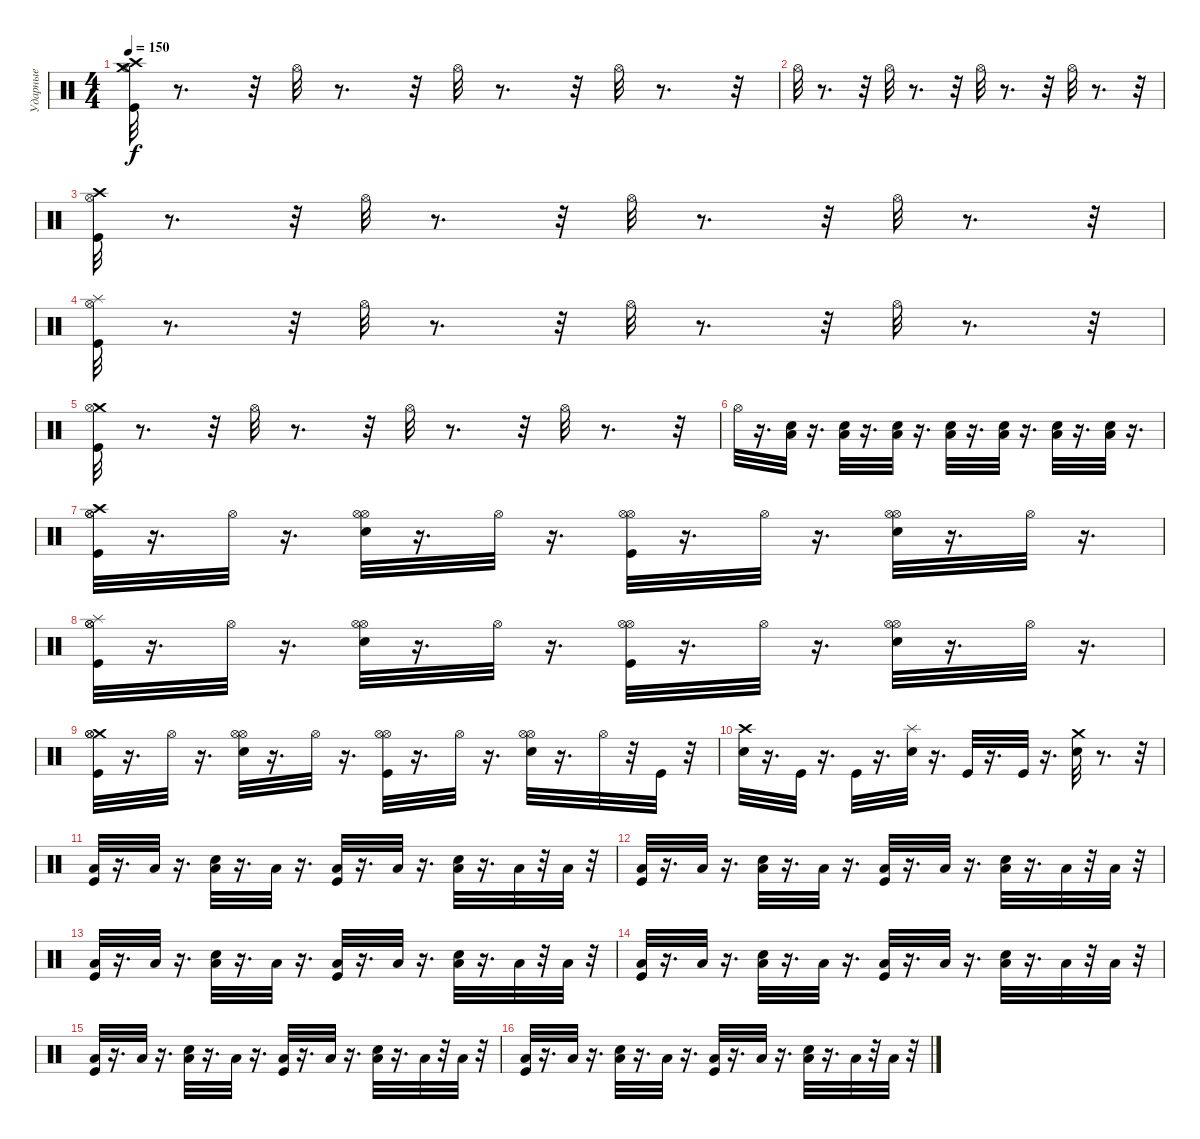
\track ("Ударные" "Ударные") {instrument percussion}
\staff {score}
\articulation defaults
\ts (4 4)
\tempo 150
\clef neutral
\ks c
("Hi-Hat (open)" "Crash medium (hit)" "Crash high (hit)" "Kick (hit)").32{dy f} r.8{d} r.32 "Hi-Hat (open)".32 r.8{d} r.32 "Hi-Hat (open)".32 r.8{d} r.32 "Hi-Hat (open)".32 r.8{d} r.32 |
"Hi-Hat (open)".32 r.8{d} r.32 "Hi-Hat (open)".32 r.8{d} r.32 "Hi-Hat (open)".32 r.8{d} r.32 "Hi-Hat (open)".32 r.8{d} r.32 |
("Kick (hit)" "Crash high (hit)" "Hi-Hat (open)").32 r.8{d} r.32 "Hi-Hat (open)".32 r.8{d} r.32 "Hi-Hat (open)".32 r.8{d} r.32 "Hi-Hat (open)".32 r.8{d} r.32 |
("Kick (hit)" "Splash (hit)" "Hi-Hat (open)").32 r.8{d} r.32 "Hi-Hat (open)".32 r.8{d} r.32 "Hi-Hat (open)".32 r.8{d} r.32 "Hi-Hat (open)".32 r.8{d} r.32 |
("Kick (hit)" "Crash medium (hit)" "Hi-Hat (open)").32 r.8{d} r.32 "Hi-Hat (open)".32 r.8{d} r.32 "Hi-Hat (open)".32 r.8{d} r.32 "Hi-Hat (open)".32 r.8{d} r.32 |
"Hi-Hat (open)".32 r.16{d} ("Snare (hit) 2" "Low Floor Tom (hit)").32 r.16{d} ("Snare (hit) 2" "Low Floor Tom (hit)").32 r.16{d} ("Low Floor Tom (hit)" "Snare (hit) 2").32 r.16{d} ("Snare (hit) 2" "Low Floor Tom (hit)").32 r.16{d} ("Snare (hit) 2" "Low Floor Tom (hit)").32 r.16{d} ("Low Floor Tom (hit)" "Snare (hit) 2").32 r.16{d} ("Snare (hit) 2" "Low Floor Tom (hit)").32 r.16{d} |
("Kick (hit)" "Crash high (hit)" "Hi-Hat (open)" "Hi-Hat (open)").32 r.16{d} "Hi-Hat (open)".32 r.16{d} ("Snare (hit) 2" "Hi-Hat (open)" "Hi-Hat (open)").32 r.16{d} "Hi-Hat (open)".32 r.16{d} ("Kick (hit)" "Hi-Hat (open)" "Hi-Hat (open)").32 r.16{d} "Hi-Hat (open)".32 r.16{d} ("Snare (hit) 2" "Hi-Hat (open)" "Hi-Hat (open)").32 r.16{d} "Hi-Hat (open)".32 r.16{d} |
("Kick (hit)" "Splash (hit)" "Hi-Hat (open)" "Hi-Hat (open)").32 r.16{d} "Hi-Hat (open)".32 r.16{d} ("Snare (hit) 2" "Hi-Hat (open)" "Hi-Hat (open)").32 r.16{d} "Hi-Hat (open)".32 r.16{d} ("Kick (hit)" "Hi-Hat (open)" "Hi-Hat (open)").32 r.16{d} "Hi-Hat (open)".32 r.16{d} ("Snare (hit) 2" "Hi-Hat (open)" "Hi-Hat (open)").32 r.16{d} "Hi-Hat (open)".32 r.16{d} |
("Kick (hit)" "Crash medium (hit)" "Hi-Hat (open)" "Hi-Hat (open)").32 r.16{d} "Hi-Hat (open)".32 r.16{d} ("Snare (hit) 2" "Hi-Hat (open)" "Hi-Hat (open)").32 r.16{d} "Hi-Hat (open)".32 r.16{d} ("Kick (hit)" "Hi-Hat (open)" "Hi-Hat (open)").32 r.16{d} "Hi-Hat (open)".32 r.16{d} ("Snare (hit) 2" "Hi-Hat (open)" "Hi-Hat (open)").32 r.16{d} "Hi-Hat (open)".32 r.32 "Kick (hit)".32 r.32 |
("Crash high (hit)" "Snare (hit) 2").32 r.16{d} "Kick (hit)".32 r.16{d} "Kick (hit)".32 r.16{d} ("Splash (hit)" "Snare (hit) 2").32 r.16{d} "Kick (hit)".32 r.16{d} "Kick (hit)".32 r.16{d} ("Crash medium (hit)" "Snare (hit) 2").32 r.8{d} r.32 |
("Kick (hit)" "Low Floor Tom (hit)").32 r.16{d} "Low Floor Tom (hit)".32 r.16{d} ("Low Floor Tom (hit)" "Snare (hit) 2").32 r.16{d} "Low Floor Tom (hit)".32 r.16{d} ("Kick (hit)" "Low Floor Tom (hit)").32 r.16{d} "Low Floor Tom (hit)".32 r.16{d} ("Low Floor Tom (hit)" "Snare (hit) 2").32 r.16{d} "Low Floor Tom (hit)".32 r.32 "Low Floor Tom (hit)".32 r.32 |
("Kick (hit)" "Low Floor Tom (hit)").32 r.16{d} "Low Floor Tom (hit)".32 r.16{d} ("Low Floor Tom (hit)" "Snare (hit) 2").32 r.16{d} "Low Floor Tom (hit)".32 r.16{d} ("Low Floor Tom (hit)" "Kick (hit)").32 r.16{d} "Low Floor Tom (hit)".32 r.16{d} ("Snare (hit) 2" "Low Floor Tom (hit)").32 r.16{d} "Low Floor Tom (hit)".32 r.32 "Low Floor Tom (hit)".32 r.32 |
("Kick (hit)" "Low Floor Tom (hit)").32 r.16{d} "Low Floor Tom (hit)".32 r.16{d} ("Low Floor Tom (hit)" "Snare (hit) 2").32 r.16{d} "Low Floor Tom (hit)".32 r.16{d} ("Kick (hit)" "Low Floor Tom (hit)").32 r.16{d} "Low Floor Tom (hit)".32 r.16{d} ("Low Floor Tom (hit)" "Snare (hit) 2").32 r.16{d} "Low Floor Tom (hit)".32 r.32 "Low Floor Tom (hit)".32 r.32 |
("Kick (hit)" "Low Floor Tom (hit)").32 r.16{d} "Low Floor Tom (hit)".32 r.16{d} ("Low Floor Tom (hit)" "Snare (hit) 2").32 r.16{d} "Low Floor Tom (hit)".32 r.16{d} ("Low Floor Tom (hit)" "Kick (hit)").32 r.16{d} "Low Floor Tom (hit)".32 r.16{d} ("Snare (hit) 2" "Low Floor Tom (hit)").32 r.16{d} "Low Floor Tom (hit)".32 r.32 "Low Floor Tom (hit)".32 r.32 |
("Kick (hit)" "Low Floor Tom (hit)").32 r.16{d} "Low Floor Tom (hit)".32 r.16{d} ("Low Floor Tom (hit)" "Snare (hit) 2").32 r.16{d} "Low Floor Tom (hit)".32 r.16{d} ("Kick (hit)" "Low Floor Tom (hit)").32 r.16{d} "Low Floor Tom (hit)".32 r.16{d} ("Low Floor Tom (hit)" "Snare (hit) 2").32 r.16{d} "Low Floor Tom (hit)".32 r.32 "Low Floor Tom (hit)".32 r.32 |
("Kick (hit)" "Low Floor Tom (hit)").32 r.16{d} "Low Floor Tom (hit)".32 r.16{d} ("Low Floor Tom (hit)" "Snare (hit) 2").32 r.16{d} "Low Floor Tom (hit)".32 r.16{d} ("Low Floor Tom (hit)" "Kick (hit)").32 r.16{d} "Low Floor Tom (hit)".32 r.16{d} ("Snare (hit) 2" "Low Floor Tom (hit)").32 r.16{d} "Low Floor Tom (hit)".32 r.32 "Low Floor Tom (hit)".32 r.32
